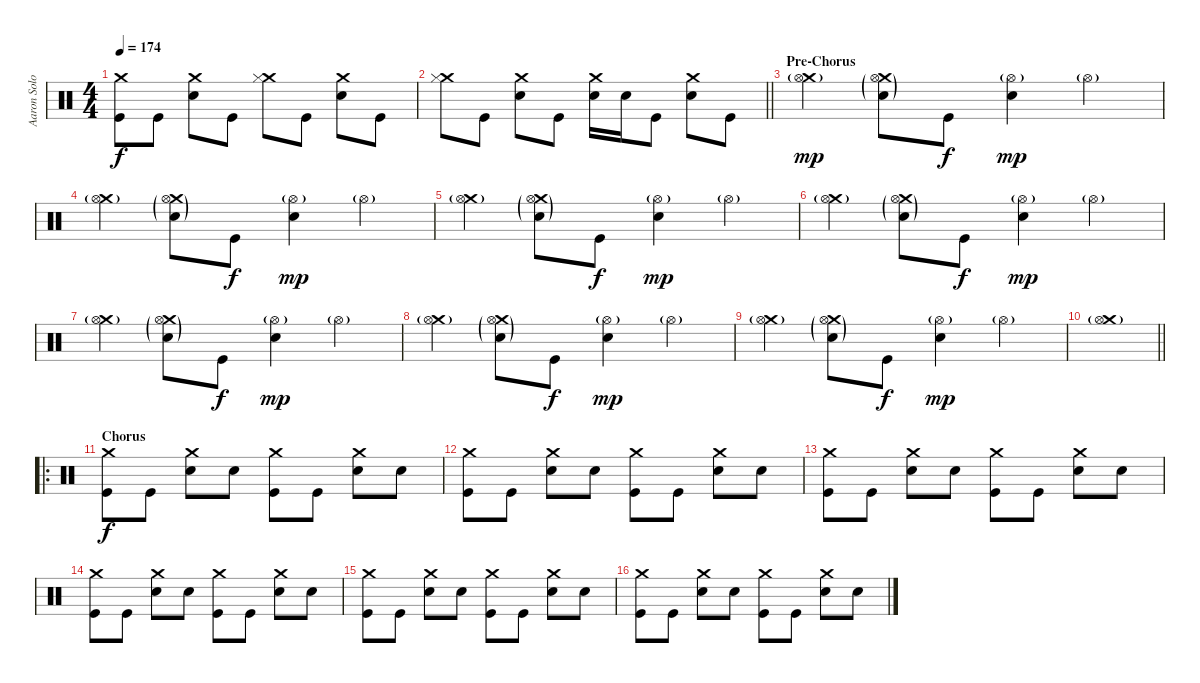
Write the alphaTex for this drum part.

\track ("Aaron Solowoniuk" "Aaron Solo") {instrument percussion}
\staff {score}
\articulation defaults
\ts (4 4)
\tempo 174
\clef neutral
\ks c
("Kick (hit)" "Crash medium (hit)").8{dy f} "Kick (hit)".8 ("Crash medium (hit)" "Electric Snare (hit)").8 "Kick (hit)".8 ("Crash medium (hit)" "Hi-Hat (closed)").8 "Kick (hit)".8 ("Crash medium (hit)" "Electric Snare (hit)").8 "Kick (hit)".8 |
\barLineRight lightlight
("Crash medium (hit)" "Hi-Hat (closed)").8 "Kick (hit)".8 ("Crash medium (hit)" "Electric Snare (hit)").8 "Kick (hit)".8 ("Crash medium (hit)" "Electric Snare (hit)").16 "Electric Snare (hit)".16 "Kick (hit)".8 ("Crash medium (hit)" "Electric Snare (hit)").8 "Kick (hit)".8 |
\section ("" "Pre-Chorus")
("Crash medium (hit)" "Hi-Hat (open)"{g}).4{dy mp} ("Crash medium (hit)"{g} "Electric Snare (hit)"{g} "Hi-Hat (open)"{g}).8 "Kick (hit)".8{dy f} ("Electric Snare (hit)" "Hi-Hat (open)"{g}).4{dy mp} "Hi-Hat (open)"{g}.4 |
("Crash medium (hit)" "Hi-Hat (open)"{g}).4 ("Crash medium (hit)"{g} "Electric Snare (hit)"{g} "Hi-Hat (open)"{g}).8 "Kick (hit)".8{dy f} ("Electric Snare (hit)" "Hi-Hat (open)"{g}).4{dy mp} "Hi-Hat (open)"{g}.4 |
("Crash medium (hit)" "Hi-Hat (open)"{g}).4 ("Crash medium (hit)"{g} "Electric Snare (hit)"{g} "Hi-Hat (open)"{g}).8 "Kick (hit)".8{dy f} ("Electric Snare (hit)" "Hi-Hat (open)"{g}).4{dy mp} "Hi-Hat (open)"{g}.4 |
("Crash medium (hit)" "Hi-Hat (open)"{g}).4 ("Crash medium (hit)"{g} "Electric Snare (hit)"{g} "Hi-Hat (open)"{g}).8 "Kick (hit)".8{dy f} ("Electric Snare (hit)" "Hi-Hat (open)"{g}).4{dy mp} "Hi-Hat (open)"{g}.4 |
("Crash medium (hit)" "Hi-Hat (open)"{g}).4 ("Crash medium (hit)"{g} "Electric Snare (hit)"{g} "Hi-Hat (open)"{g}).8 "Kick (hit)".8{dy f} ("Electric Snare (hit)" "Hi-Hat (open)"{g}).4{dy mp} "Hi-Hat (open)"{g}.4 |
("Crash medium (hit)" "Hi-Hat (open)"{g}).4 ("Crash medium (hit)"{g} "Electric Snare (hit)"{g} "Hi-Hat (open)"{g}).8 "Kick (hit)".8{dy f} ("Electric Snare (hit)" "Hi-Hat (open)"{g}).4{dy mp} "Hi-Hat (open)"{g}.4 |
("Crash medium (hit)" "Hi-Hat (open)"{g}).4 ("Crash medium (hit)"{g} "Electric Snare (hit)"{g} "Hi-Hat (open)"{g}).8 "Kick (hit)".8{dy f} ("Electric Snare (hit)" "Hi-Hat (open)"{g}).4{dy mp} "Hi-Hat (open)"{g}.4 |
\barLineRight lightlight
("Crash medium (hit)" "Hi-Hat (open)"{g}).1 |
\ro
\section ("" "Chorus")
("Kick (hit)" "Crash medium (hit)").8{dy f} "Kick (hit)".8 ("Snare (hit) 2" "Crash medium (hit)").8 "Snare (hit) 2".8 ("Kick (hit)" "Crash medium (hit)").8 "Kick (hit)".8 ("Snare (hit) 2" "Crash medium (hit)").8 "Snare (hit) 2".8 |
("Kick (hit)" "Crash medium (hit)").8 "Kick (hit)".8 ("Snare (hit) 2" "Crash medium (hit)").8 "Snare (hit) 2".8 ("Kick (hit)" "Crash medium (hit)").8 "Kick (hit)".8 ("Snare (hit) 2" "Crash medium (hit)").8 "Snare (hit) 2".8 |
("Kick (hit)" "Crash medium (hit)").8 "Kick (hit)".8 ("Snare (hit) 2" "Crash medium (hit)").8 "Snare (hit) 2".8 ("Kick (hit)" "Crash medium (hit)").8 "Kick (hit)".8 ("Snare (hit) 2" "Crash medium (hit)").8 "Snare (hit) 2".8 |
("Kick (hit)" "Crash medium (hit)").8 "Kick (hit)".8 ("Snare (hit) 2" "Crash medium (hit)").8 "Snare (hit) 2".8 ("Kick (hit)" "Crash medium (hit)").8 "Kick (hit)".8 ("Snare (hit) 2" "Crash medium (hit)").8 "Snare (hit) 2".8 |
("Kick (hit)" "Crash medium (hit)").8 "Kick (hit)".8 ("Snare (hit) 2" "Crash medium (hit)").8 "Snare (hit) 2".8 ("Kick (hit)" "Crash medium (hit)").8 "Kick (hit)".8 ("Snare (hit) 2" "Crash medium (hit)").8 "Snare (hit) 2".8 |
("Kick (hit)" "Crash medium (hit)").8 "Kick (hit)".8 ("Snare (hit) 2" "Crash medium (hit)").8 "Snare (hit) 2".8 ("Kick (hit)" "Crash medium (hit)").8 "Kick (hit)".8 ("Snare (hit) 2" "Crash medium (hit)").8 "Snare (hit) 2".8
